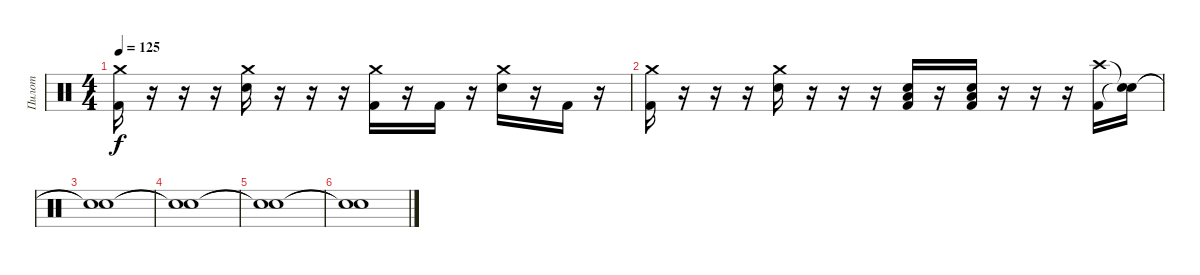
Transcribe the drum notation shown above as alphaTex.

\track ("Пилот" "Пилот") {instrument percussion}
\staff {score}
\articulation defaults
\ts (4 4)
\tempo 125
\clef neutral
\ks c
("Crash medium (hit)" "Kick (hit) 2").16{dy f} r.16 r.16 r.16 ("Crash medium (hit)" "Electric Snare (hit)").16 r.16 r.16 r.16 ("Crash medium (hit)" "Kick (hit) 2").16 r.16 "Kick (hit) 2".16 r.16 ("Crash medium (hit)" "Electric Snare (hit)").16 r.16 "Kick (hit) 2".16 r.16 |
("Crash medium (hit)" "Kick (hit) 2").16 r.16 r.16 r.16 ("Crash medium (hit)" "Electric Snare (hit)").16 r.16 r.16 r.16 ("Low Floor Tom (hit)" "Electric Snare (hit)" "Kick (hit) 2").16 r.16 ("Low Floor Tom (hit)" "Electric Snare (hit)" "Kick (hit) 2").16 r.16 r.16 r.16 ("Crash high (hit)" "Kick (hit) 2").16 ("Snare (hit)"{t} "Snare (hit)"{t}).16 |
("Snare (hit)"{t} "Snare (hit)"{t}).1 |
("Snare (hit)"{t} "Snare (hit)"{t}).1 |
("Snare (hit)"{t} "Snare (hit)"{t}).1 |
("Snare (hit)"{t} "Snare (hit)"{t}).1
